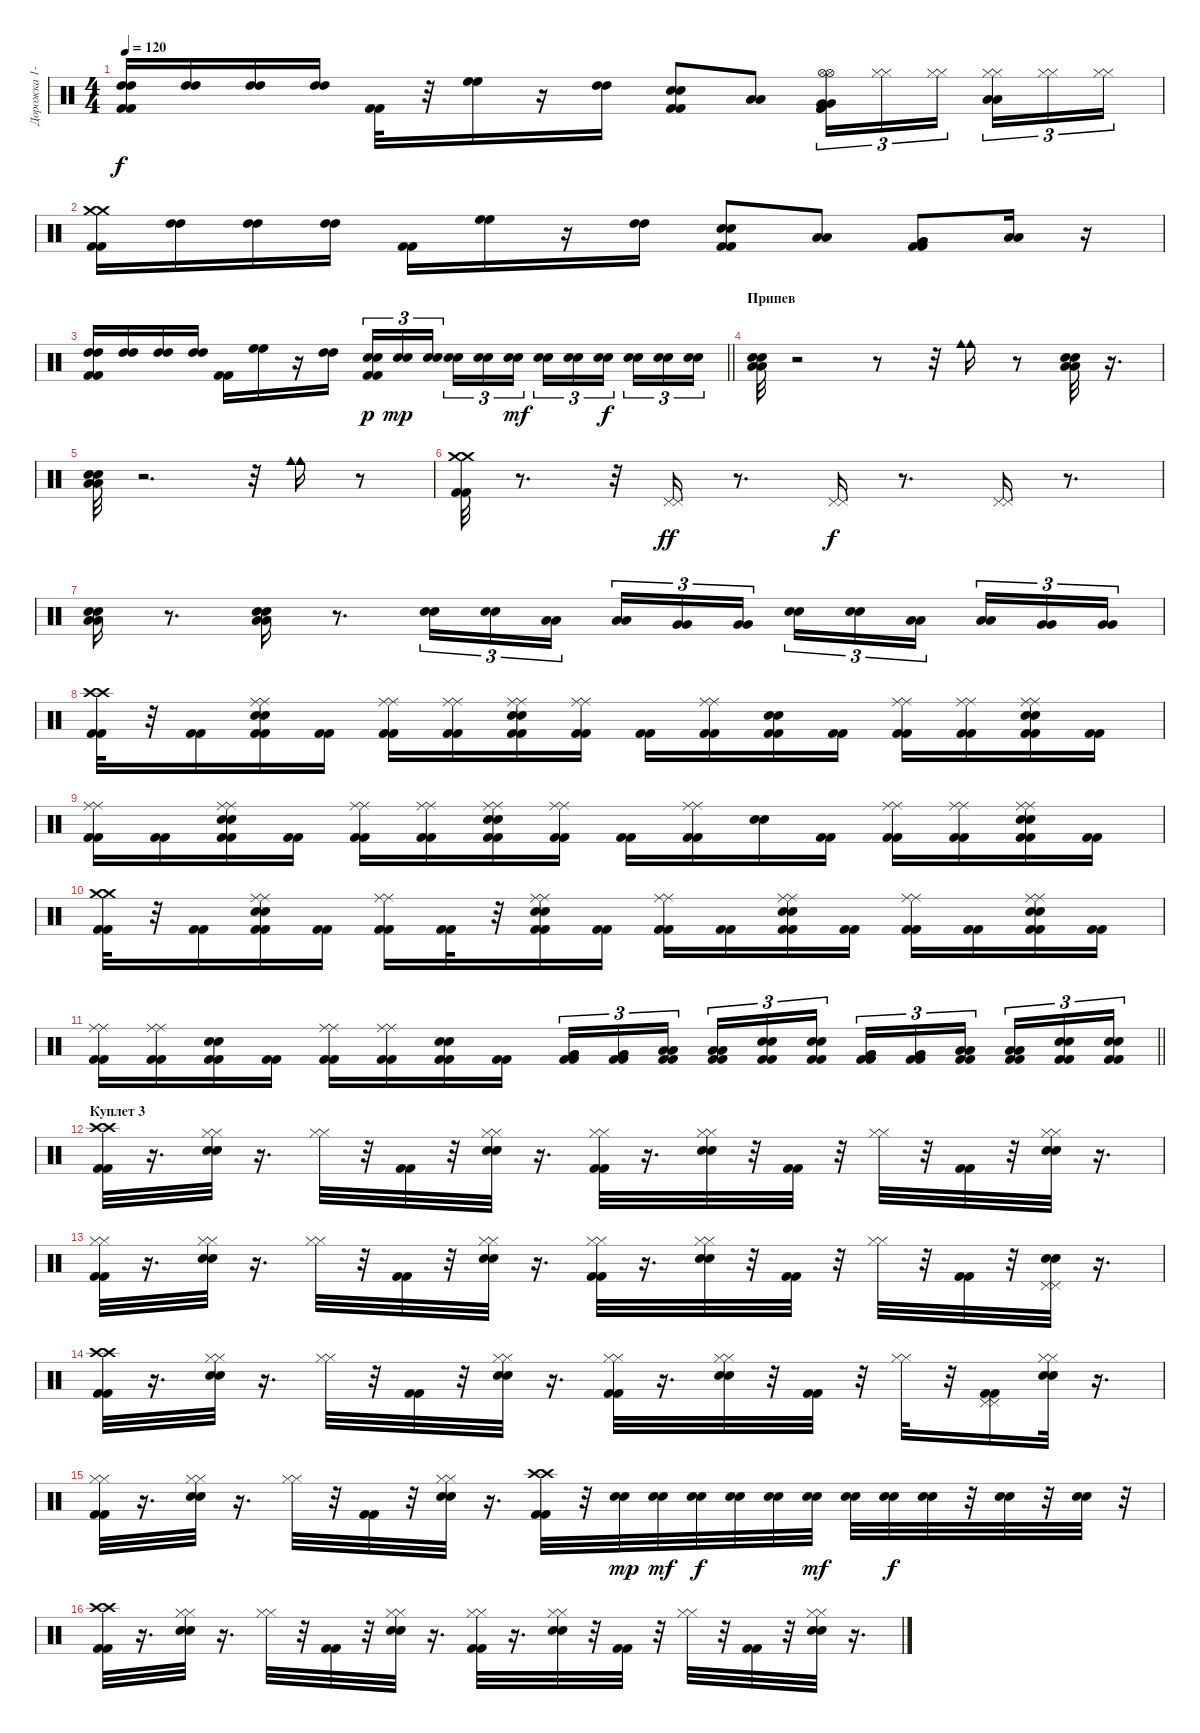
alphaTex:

\track ("Дорожка 1-2" "Дорожка 1-") {instrument percussion}
\staff {score}
\articulation defaults
\ts (4 4)
\tempo 120
\clef neutral
\ks c
("Kick (hit) 2" "Kick (hit) 2" "High Tom (hit)" "High Tom (hit)").16{dy f} ("High Tom (hit)" "High Tom (hit)").16 ("High Tom (hit)" "High Tom (hit)").16 ("High Tom (hit)" "High Tom (hit)").16 ("Kick (hit) 2" "Kick (hit) 2").32 r.32 ("High Floor Tom (hit)" "High Floor Tom (hit)").16 r.16 ("High Tom (hit)" "High Tom (hit)").16 ("Kick (hit) 2" "Kick (hit) 2" "Electric Snare (hit)" "Electric Snare (hit)").8 ("Low Tom (hit)" "Low Tom (hit)").8 ("Kick (hit) 2" "Kick (hit) 2" "Very Low Tom (hit)" "Very Low Tom (hit)" "Hi-Hat (open)" "Hi-Hat (open)").16{tu (3 2)} ("Hi-Hat (closed)" "Hi-Hat (closed)").16{tu (3 2)} ("Hi-Hat (closed)" "Hi-Hat (closed)").16{tu (3 2) beam splitsecondary} ("Low Floor Tom (hit)" "Low Floor Tom (hit)" "Hi-Hat (closed)" "Hi-Hat (closed)").16{tu (3 2)} ("Hi-Hat (closed)" "Hi-Hat (closed)").16{tu (3 2)} ("Hi-Hat (closed)" "Hi-Hat (closed)").16{tu (3 2)} |
("Kick (hit) 2" "Kick (hit) 2" "Crash medium (hit)" "Crash medium (hit)").16 ("High Tom (hit)" "High Tom (hit)").16 ("High Tom (hit)" "High Tom (hit)").16 ("High Tom (hit)" "High Tom (hit)").16 ("Kick (hit) 2" "Kick (hit) 2").16 ("High Floor Tom (hit)" "High Floor Tom (hit)").16 r.16 ("High Tom (hit)" "High Tom (hit)").16 ("Kick (hit) 2" "Kick (hit) 2" "Electric Snare (hit)" "Electric Snare (hit)").8 ("Low Tom (hit)" "Low Tom (hit)").8 ("Kick (hit) 2" "Kick (hit) 2" "Very Low Tom (hit)" "Very Low Tom (hit)").8 ("Low Floor Tom (hit)" "Low Floor Tom (hit)").16 r.16 |
\barLineRight lightlight
("Kick (hit) 2" "Kick (hit) 2" "High Tom (hit)" "High Tom (hit)").16 ("High Tom (hit)" "High Tom (hit)").16 ("High Tom (hit)" "High Tom (hit)").16 ("High Tom (hit)" "High Tom (hit)").16 ("Kick (hit) 2" "Kick (hit) 2").16 ("High Floor Tom (hit)" "High Floor Tom (hit)").16 r.16 ("High Tom (hit)" "High Tom (hit)").16 ("Kick (hit) 2" "Kick (hit) 2" "Electric Snare (hit)" "Electric Snare (hit)").16{tu (3 2) dy p} ("Electric Snare (hit)" "Electric Snare (hit)").16{tu (3 2) dy mp} ("Electric Snare (hit)" "Electric Snare (hit)").16{tu (3 2) beam splitsecondary} ("Electric Snare (hit)" "Electric Snare (hit)").16{tu (3 2)} ("Electric Snare (hit)" "Electric Snare (hit)").16{tu (3 2)} ("Electric Snare (hit)" "Electric Snare (hit)").16{tu (3 2) dy mf} ("Electric Snare (hit)" "Electric Snare (hit)").16{tu (3 2)} ("Electric Snare (hit)" "Electric Snare (hit)").16{tu (3 2)} ("Electric Snare (hit)" "Electric Snare (hit)").16{tu (3 2) dy f beam splitsecondary} ("Electric Snare (hit)" "Electric Snare (hit)").16{tu (3 2)} ("Electric Snare (hit)" "Electric Snare (hit)").16{tu (3 2)} ("Electric Snare (hit)" "Electric Snare (hit)").16{tu (3 2)} |
\section ("" "Припев")
("Electric Snare (hit)" "Electric Snare (hit)" "Low Floor Tom (hit)" "Low Floor Tom (hit)").32 r.2 r.8 r.32 ("Cowbell medium (hit)" "Cowbell medium (hit)").16 r.8 ("Electric Snare (hit)" "Electric Snare (hit)" "Low Floor Tom (hit)" "Low Floor Tom (hit)").32 r.16{d} |
("Electric Snare (hit)" "Electric Snare (hit)" "Low Floor Tom (hit)" "Low Floor Tom (hit)").32 r.2{d} r.32 ("Cowbell medium (hit)" "Cowbell medium (hit)").16 r.8 |
("Kick (hit) 2" "Kick (hit) 2" "Crash medium (hit)" "Crash medium (hit)").32 r.8{d} r.32 ("Pedal Hi-Hat (hit)" "Pedal Hi-Hat (hit)").16{dy ff} r.8{d} ("Pedal Hi-Hat (hit)" "Pedal Hi-Hat (hit)").16{dy f} r.8{d} ("Pedal Hi-Hat (hit)" "Pedal Hi-Hat (hit)").16 r.8{d} |
("Electric Snare (hit)" "Electric Snare (hit)" "Low Floor Tom (hit)" "Low Floor Tom (hit)").16 r.8{d} ("Electric Snare (hit)" "Electric Snare (hit)" "Low Floor Tom (hit)" "Low Floor Tom (hit)").16 r.8{d} ("Electric Snare (hit)" "Electric Snare (hit)").16{tu (3 2)} ("Electric Snare (hit)" "Electric Snare (hit)").16{tu (3 2)} ("Low Tom (hit)" "Low Tom (hit)").16{tu (3 2) beam splitsecondary} ("Low Tom (hit)" "Low Tom (hit)").16{tu (3 2)} ("Very Low Tom (hit)" "Very Low Tom (hit)").16{tu (3 2)} ("Very Low Tom (hit)" "Very Low Tom (hit)").16{tu (3 2)} ("Electric Snare (hit)" "Electric Snare (hit)").16{tu (3 2)} ("Electric Snare (hit)" "Electric Snare (hit)").16{tu (3 2)} ("Low Tom (hit)" "Low Tom (hit)").16{tu (3 2) beam splitsecondary} ("Low Tom (hit)" "Low Tom (hit)").16{tu (3 2)} ("Very Low Tom (hit)" "Very Low Tom (hit)").16{tu (3 2)} ("Very Low Tom (hit)" "Very Low Tom (hit)").16{tu (3 2)} |
("Kick (hit) 2" "Kick (hit) 2" "Crash high (hit)" "Crash high (hit)").32 r.32 ("Kick (hit) 2" "Kick (hit) 2").16 ("Kick (hit) 2" "Kick (hit) 2" "Electric Snare (hit)" "Electric Snare (hit)" "Ride (middle)" "Ride (middle)").16 ("Kick (hit) 2" "Kick (hit) 2").16 ("Kick (hit) 2" "Kick (hit) 2" "Ride (middle)" "Ride (middle)").16 ("Kick (hit) 2" "Kick (hit) 2" "Ride (middle)" "Ride (middle)").16 ("Kick (hit) 2" "Kick (hit) 2" "Electric Snare (hit)" "Electric Snare (hit)" "Ride (middle)" "Ride (middle)").16 ("Kick (hit) 2" "Kick (hit) 2" "Ride (middle)" "Ride (middle)").16 ("Kick (hit) 2" "Kick (hit) 2").16 ("Kick (hit) 2" "Kick (hit) 2" "Ride (middle)" "Ride (middle)").16 ("Kick (hit) 2" "Kick (hit) 2" "Electric Snare (hit)" "Electric Snare (hit)").16 ("Kick (hit) 2" "Kick (hit) 2").16 ("Kick (hit) 2" "Kick (hit) 2" "Ride (middle)" "Ride (middle)").16 ("Kick (hit) 2" "Kick (hit) 2" "Ride (middle)" "Ride (middle)").16 ("Kick (hit) 2" "Kick (hit) 2" "Electric Snare (hit)" "Electric Snare (hit)" "Ride (middle)" "Ride (middle)").16 ("Kick (hit) 2" "Kick (hit) 2").16 |
("Kick (hit) 2" "Kick (hit) 2" "Ride (middle)" "Ride (middle)").16 ("Kick (hit) 2" "Kick (hit) 2").16 ("Kick (hit) 2" "Kick (hit) 2" "Electric Snare (hit)" "Electric Snare (hit)" "Ride (middle)" "Ride (middle)").16 ("Kick (hit) 2" "Kick (hit) 2").16 ("Kick (hit) 2" "Kick (hit) 2" "Ride (middle)" "Ride (middle)").16 ("Kick (hit) 2" "Kick (hit) 2" "Ride (middle)" "Ride (middle)").16 ("Kick (hit) 2" "Kick (hit) 2" "Electric Snare (hit)" "Electric Snare (hit)" "Ride (middle)" "Ride (middle)").16 ("Kick (hit) 2" "Kick (hit) 2" "Ride (middle)" "Ride (middle)").16 ("Kick (hit) 2" "Kick (hit) 2").16 ("Kick (hit) 2" "Kick (hit) 2" "Ride (middle)" "Ride (middle)").16 ("Electric Snare (hit)" "Electric Snare (hit)").16 ("Kick (hit) 2" "Kick (hit) 2").16 ("Kick (hit) 2" "Kick (hit) 2" "Ride (middle)" "Ride (middle)").16 ("Kick (hit) 2" "Kick (hit) 2" "Ride (middle)" "Ride (middle)").16 ("Kick (hit) 2" "Kick (hit) 2" "Electric Snare (hit)" "Electric Snare (hit)" "Ride (middle)" "Ride (middle)").16 ("Kick (hit) 2" "Kick (hit) 2").16 |
("Kick (hit) 2" "Kick (hit) 2" "Crash medium (hit)" "Crash medium (hit)").32 r.32 ("Kick (hit) 2" "Kick (hit) 2").16 ("Kick (hit) 2" "Kick (hit) 2" "Electric Snare (hit)" "Electric Snare (hit)" "Ride (middle)" "Ride (middle)").16 ("Kick (hit) 2" "Kick (hit) 2").16 ("Kick (hit) 2" "Kick (hit) 2" "Ride (middle)" "Ride (middle)").16 ("Kick (hit) 2" "Kick (hit) 2").32 r.32 ("Kick (hit) 2" "Kick (hit) 2" "Electric Snare (hit)" "Electric Snare (hit)" "Ride (middle)" "Ride (middle)").16 ("Kick (hit) 2" "Kick (hit) 2").16 ("Kick (hit) 2" "Kick (hit) 2" "Ride (middle)" "Ride (middle)").16 ("Kick (hit) 2" "Kick (hit) 2").16 ("Kick (hit) 2" "Kick (hit) 2" "Electric Snare (hit)" "Electric Snare (hit)" "Ride (middle)" "Ride (middle)").16 ("Kick (hit) 2" "Kick (hit) 2").16 ("Kick (hit) 2" "Kick (hit) 2" "Ride (middle)" "Ride (middle)").16 ("Kick (hit) 2" "Kick (hit) 2").16 ("Kick (hit) 2" "Kick (hit) 2" "Electric Snare (hit)" "Electric Snare (hit)" "Ride (middle)" "Ride (middle)").16 ("Kick (hit) 2" "Kick (hit) 2").16 |
\barLineRight lightlight
("Kick (hit) 2" "Kick (hit) 2" "Ride (middle)" "Ride (middle)").16 ("Kick (hit) 2" "Kick (hit) 2" "Ride (middle)" "Ride (middle)").16 ("Kick (hit) 2" "Kick (hit) 2" "Electric Snare (hit)" "Electric Snare (hit)").16 ("Kick (hit) 2" "Kick (hit) 2").16 ("Kick (hit) 2" "Kick (hit) 2" "Ride (middle)" "Ride (middle)").16 ("Kick (hit) 2" "Kick (hit) 2" "Ride (middle)" "Ride (middle)").16 ("Kick (hit) 2" "Kick (hit) 2" "Electric Snare (hit)" "Electric Snare (hit)").16 ("Kick (hit) 2" "Kick (hit) 2").16 ("Kick (hit) 2" "Kick (hit) 2" "Very Low Tom (hit)" "Very Low Tom (hit)").16{tu (3 2)} ("Kick (hit) 2" "Kick (hit) 2" "Very Low Tom (hit)" "Very Low Tom (hit)").16{tu (3 2)} ("Kick (hit) 2" "Kick (hit) 2" "Low Tom (hit)" "Low Tom (hit)").16{tu (3 2) beam splitsecondary} ("Kick (hit) 2" "Kick (hit) 2" "Low Tom (hit)" "Low Tom (hit)").16{tu (3 2)} ("Kick (hit) 2" "Kick (hit) 2" "Electric Snare (hit)" "Electric Snare (hit)").16{tu (3 2)} ("Kick (hit) 2" "Kick (hit) 2" "Electric Snare (hit)" "Electric Snare (hit)").16{tu (3 2)} ("Kick (hit) 2" "Kick (hit) 2" "Very Low Tom (hit)" "Very Low Tom (hit)").16{tu (3 2)} ("Kick (hit) 2" "Kick (hit) 2" "Very Low Tom (hit)" "Very Low Tom (hit)").16{tu (3 2)} ("Kick (hit) 2" "Kick (hit) 2" "Low Tom (hit)" "Low Tom (hit)").16{tu (3 2) beam splitsecondary} ("Kick (hit) 2" "Kick (hit) 2" "Low Tom (hit)" "Low Tom (hit)").16{tu (3 2)} ("Kick (hit) 2" "Kick (hit) 2" "Electric Snare (hit)" "Electric Snare (hit)").16{tu (3 2)} ("Kick (hit) 2" "Kick (hit) 2" "Electric Snare (hit)" "Electric Snare (hit)").16{tu (3 2)} |
\section ("" "Куплет 3")
("Kick (hit) 2" "Kick (hit) 2" "Crash high (hit)" "Crash high (hit)").32 r.16{d} ("Electric Snare (hit)" "Electric Snare (hit)" "Hi-Hat (closed)" "Hi-Hat (closed)").32 r.16{d} ("Hi-Hat (closed)" "Hi-Hat (closed)").32 r.32 ("Kick (hit) 2" "Kick (hit) 2").32 r.32 ("Electric Snare (hit)" "Electric Snare (hit)" "Hi-Hat (closed)" "Hi-Hat (closed)").32 r.16{d} ("Kick (hit) 2" "Kick (hit) 2" "Hi-Hat (closed)" "Hi-Hat (closed)").32 r.16{d} ("Electric Snare (hit)" "Electric Snare (hit)" "Hi-Hat (closed)" "Hi-Hat (closed)").32 r.32 ("Kick (hit) 2" "Kick (hit) 2").32 r.32 ("Hi-Hat (closed)" "Hi-Hat (closed)").32 r.32 ("Kick (hit) 2" "Kick (hit) 2").32 r.32 ("Electric Snare (hit)" "Electric Snare (hit)" "Hi-Hat (closed)" "Hi-Hat (closed)").32 r.16{d} |
("Kick (hit) 2" "Kick (hit) 2" "Hi-Hat (closed)" "Hi-Hat (closed)").32 r.16{d} ("Electric Snare (hit)" "Electric Snare (hit)" "Hi-Hat (closed)" "Hi-Hat (closed)").32 r.16{d} ("Hi-Hat (closed)" "Hi-Hat (closed)").32 r.32 ("Kick (hit) 2" "Kick (hit) 2").32 r.32 ("Electric Snare (hit)" "Electric Snare (hit)" "Hi-Hat (closed)" "Hi-Hat (closed)").32 r.16{d} ("Kick (hit) 2" "Kick (hit) 2" "Hi-Hat (closed)" "Hi-Hat (closed)").32 r.16{d} ("Electric Snare (hit)" "Electric Snare (hit)" "Hi-Hat (closed)" "Hi-Hat (closed)").32 r.32 ("Kick (hit) 2" "Kick (hit) 2").32 r.32 ("Hi-Hat (closed)" "Hi-Hat (closed)").32 r.32 ("Kick (hit) 2" "Kick (hit) 2").32 r.32 ("Electric Snare (hit)" "Electric Snare (hit)" "Pedal Hi-Hat (hit)" "Pedal Hi-Hat (hit)").32 r.16{d} |
("Kick (hit) 2" "Kick (hit) 2" "Crash high (hit)" "Crash high (hit)").32 r.16{d} ("Electric Snare (hit)" "Electric Snare (hit)" "Hi-Hat (closed)" "Hi-Hat (closed)").32 r.16{d} ("Hi-Hat (closed)" "Hi-Hat (closed)").32 r.32 ("Kick (hit) 2" "Kick (hit) 2").32 r.32 ("Electric Snare (hit)" "Electric Snare (hit)" "Hi-Hat (closed)" "Hi-Hat (closed)").32 r.16{d} ("Kick (hit) 2" "Kick (hit) 2" "Hi-Hat (closed)" "Hi-Hat (closed)").32 r.16{d} ("Electric Snare (hit)" "Electric Snare (hit)" "Hi-Hat (closed)" "Hi-Hat (closed)").32 r.32 ("Kick (hit) 2" "Kick (hit) 2").32 r.32 ("Hi-Hat (closed)" "Hi-Hat (closed)").32 r.32 ("Kick (hit) 2" "Kick (hit) 2" "Pedal Hi-Hat (hit)" "Pedal Hi-Hat (hit)").16 ("Electric Snare (hit)" "Electric Snare (hit)" "Hi-Hat (closed)" "Hi-Hat (closed)").32 r.16{d} |
("Kick (hit) 2" "Kick (hit) 2" "Hi-Hat (closed)" "Hi-Hat (closed)").32 r.16{d} ("Electric Snare (hit)" "Electric Snare (hit)" "Hi-Hat (closed)" "Hi-Hat (closed)").32 r.16{d} ("Hi-Hat (closed)" "Hi-Hat (closed)").32 r.32 ("Kick (hit) 2" "Kick (hit) 2").32 r.32 ("Electric Snare (hit)" "Electric Snare (hit)" "Hi-Hat (closed)" "Hi-Hat (closed)").32 r.16{d} ("Kick (hit) 2" "Kick (hit) 2" "Crash high (hit)" "Crash high (hit)").32 r.32 ("Electric Snare (hit)" "Electric Snare (hit)").32{dy mp} ("Electric Snare (hit)" "Electric Snare (hit)").32{dy mf} ("Electric Snare (hit)" "Electric Snare (hit)").32{dy f} ("Electric Snare (hit)" "Electric Snare (hit)").32 ("Electric Snare (hit)" "Electric Snare (hit)").32 ("Electric Snare (hit)" "Electric Snare (hit)").32{dy mf} ("Electric Snare (hit)" "Electric Snare (hit)").32 ("Electric Snare (hit)" "Electric Snare (hit)").32{dy f} ("Electric Snare (hit)" "Electric Snare (hit)").32 r.32 ("Electric Snare (hit)" "Electric Snare (hit)").32 r.32 ("Electric Snare (hit)" "Electric Snare (hit)").32 r.32 |
("Kick (hit) 2" "Kick (hit) 2" "Crash high (hit)" "Crash high (hit)").32 r.16{d} ("Electric Snare (hit)" "Electric Snare (hit)" "Hi-Hat (closed)" "Hi-Hat (closed)").32 r.16{d} ("Hi-Hat (closed)" "Hi-Hat (closed)").32 r.32 ("Kick (hit) 2" "Kick (hit) 2").32 r.32 ("Electric Snare (hit)" "Electric Snare (hit)" "Hi-Hat (closed)" "Hi-Hat (closed)").32 r.16{d} ("Kick (hit) 2" "Kick (hit) 2" "Hi-Hat (closed)" "Hi-Hat (closed)").32 r.16{d} ("Electric Snare (hit)" "Electric Snare (hit)" "Hi-Hat (closed)" "Hi-Hat (closed)").32 r.32 ("Kick (hit) 2" "Kick (hit) 2").32 r.32 ("Hi-Hat (closed)" "Hi-Hat (closed)").32 r.32 ("Kick (hit) 2" "Kick (hit) 2").32 r.32 ("Electric Snare (hit)" "Electric Snare (hit)" "Hi-Hat (closed)" "Hi-Hat (closed)").32 r.16{d}
